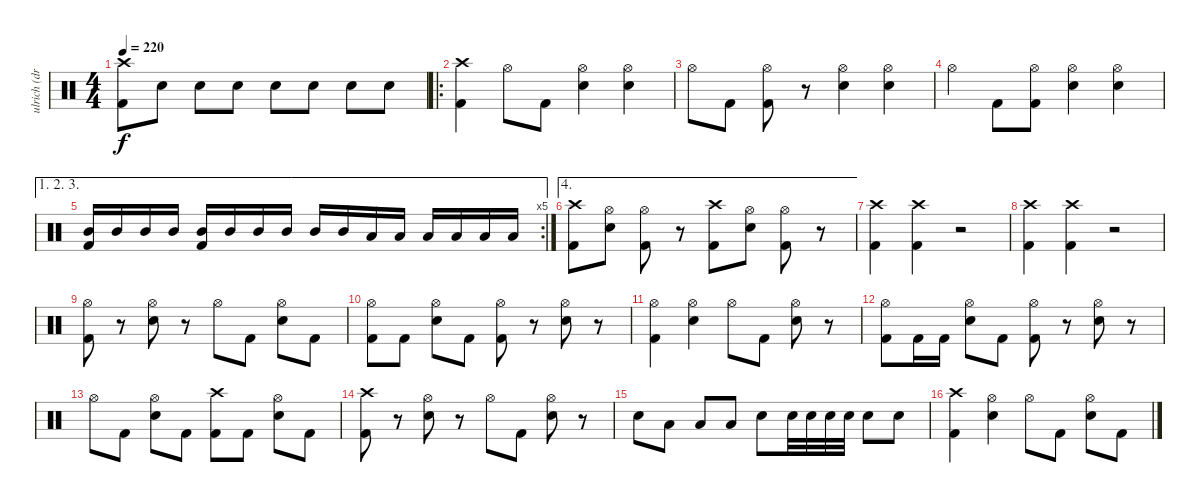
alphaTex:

\track ("ulrich (drums)" "ulrich (dr") {instrument percussion}
\staff {score}
\articulation defaults
\ts (4 4)
\tempo 220
\clef neutral
\ks c
("Crash high (hit)" "Kick (hit) 2").8{dy f} "Snare (hit) 2".8 "Snare (hit) 2".8 "Snare (hit) 2".8 "Snare (hit) 2".8 "Snare (hit) 2".8 "Snare (hit) 2".8 "Snare (hit) 2".8 |
\ro
("Crash high (hit)" "Kick (hit) 2").4 "Hi-Hat (open)".8 "Kick (hit) 2".8 ("Hi-Hat (open)" "Snare (hit) 2").4 ("Hi-Hat (open)" "Snare (hit) 2").4 |
"Hi-Hat (open)".8 "Kick (hit) 2".8 ("Hi-Hat (open)" "Kick (hit) 2").8 r.8 ("Hi-Hat (open)" "Snare (hit) 2").4 ("Hi-Hat (open)" "Snare (hit) 2").4 |
"Hi-Hat (open)".4 "Kick (hit) 2".8 ("Hi-Hat (open)" "Kick (hit) 2").8 ("Hi-Hat (open)" "Snare (hit) 2").4 ("Hi-Hat (open)" "Snare (hit) 2").4 |
\ae (1 2 3)
\rc 5
("Mid Tom (hit)" "Kick (hit) 2").16 "Mid Tom (hit)".16 "Mid Tom (hit)".16 "Mid Tom (hit)".16 ("Mid Tom (hit)" "Kick (hit) 2").16 "Mid Tom (hit)".16 "Mid Tom (hit)".16 "Mid Tom (hit)".16 "Mid Tom (hit)".16 "Mid Tom (hit)".16 "Low Tom (hit)".16 "Low Tom (hit)".16 "Low Tom (hit)".16 "Low Tom (hit)".16 "Low Tom (hit)".16 "Low Tom (hit)".16 |
\ae 4
("Crash high (hit)" "Kick (hit) 2").8 ("Hi-Hat (open)" "Snare (hit) 2").8 ("Hi-Hat (open)" "Kick (hit) 2").8 r.8 ("Crash high (hit)" "Kick (hit) 2").8 ("Hi-Hat (open)" "Snare (hit) 2").8 ("Hi-Hat (open)" "Kick (hit) 2").8 r.8 |
("Crash high (hit)" "Kick (hit) 2").4 ("Crash high (hit)" "Kick (hit) 2").4 r.2 |
("Crash high (hit)" "Kick (hit) 2").4 ("Crash high (hit)" "Kick (hit) 2").4 r.2 |
("Hi-Hat (open)" "Kick (hit) 2").8 r.8 ("Hi-Hat (open)" "Snare (hit) 2").8 r.8 "Hi-Hat (open)".8 "Kick (hit) 2".8 ("Hi-Hat (open)" "Snare (hit) 2").8 "Kick (hit) 2".8 |
("Hi-Hat (open)" "Kick (hit) 2").8 "Kick (hit) 2".8 ("Hi-Hat (open)" "Snare (hit) 2").8 "Kick (hit) 2".8 ("Hi-Hat (open)" "Kick (hit) 2").8 r.8 ("Hi-Hat (open)" "Snare (hit) 2").8 r.8 |
("Hi-Hat (open)" "Kick (hit) 2").4 ("Hi-Hat (open)" "Snare (hit) 2").4 "Hi-Hat (open)".8 "Kick (hit) 2".8 ("Hi-Hat (open)" "Snare (hit) 2").8 r.8 |
("Hi-Hat (open)" "Kick (hit) 2").8 "Kick (hit) 2".16 "Kick (hit) 2".16 ("Hi-Hat (open)" "Snare (hit) 2").8 "Kick (hit) 2".8 ("Hi-Hat (open)" "Kick (hit) 2").8 r.8 ("Hi-Hat (open)" "Snare (hit) 2").8 r.8 |
"Hi-Hat (open)".8 "Kick (hit) 2".8 ("Hi-Hat (open)" "Snare (hit) 2").8 "Kick (hit) 2".8 ("Crash high (hit)" "Kick (hit) 2").8 "Kick (hit) 2".8 ("Hi-Hat (open)" "Snare (hit) 2").8 "Kick (hit) 2".8 |
("Crash high (hit)" "Kick (hit) 2").8 r.8 ("Hi-Hat (open)" "Snare (hit) 2").8 r.8 "Hi-Hat (open)".8 "Kick (hit) 2".8 ("Hi-Hat (open)" "Snare (hit) 2").8 r.8 |
"Snare (hit) 2".8 "Low Tom (hit)".8 "Low Tom (hit)".8 "Low Tom (hit)".8 "Snare (hit) 2".8 "Snare (hit) 2".32 "Snare (hit) 2".32 "Snare (hit) 2".32 "Snare (hit) 2".32 "Snare (hit) 2".8 "Snare (hit) 2".8 |
("Crash high (hit)" "Kick (hit) 2").4 ("Hi-Hat (open)" "Snare (hit) 2").4 "Hi-Hat (open)".8 "Kick (hit) 2".8 ("Hi-Hat (open)" "Snare (hit) 2").8 "Kick (hit) 2".8
